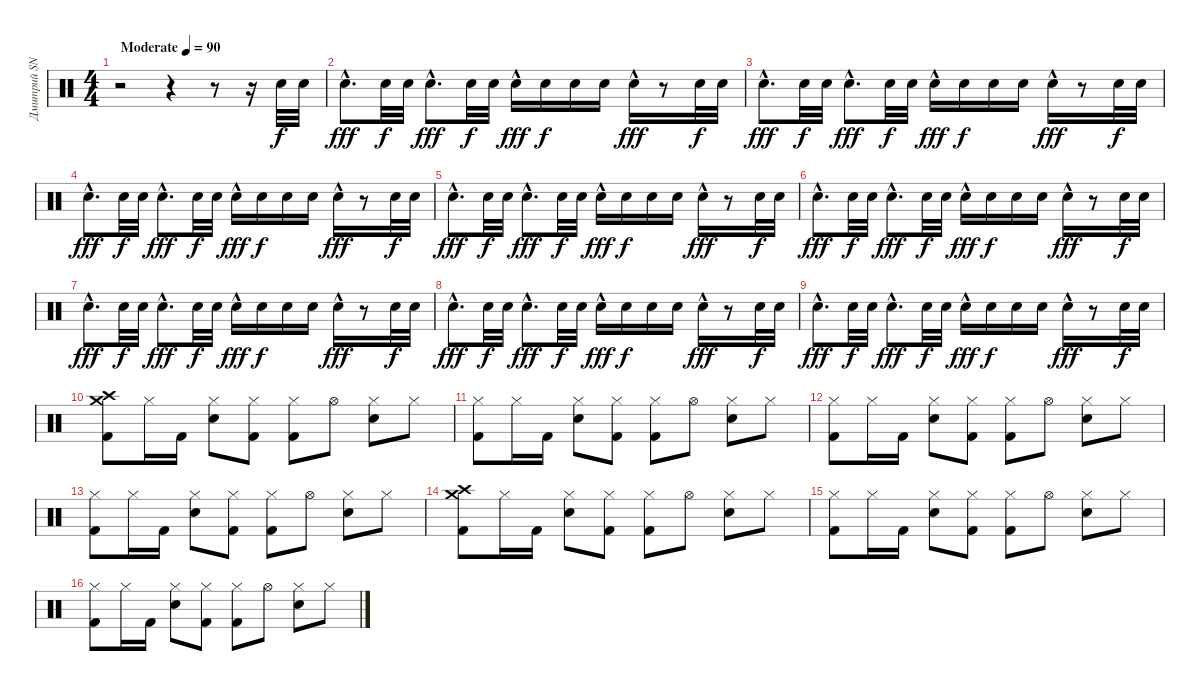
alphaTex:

\track ("Дмитрий SNAKE Хакимов" "Дмитрий SN") {instrument percussion}
\staff {score}
\articulation defaults
\ts (4 4)
\tempo (90 "Moderate")
\clef neutral
\ks c
r.2{dy f} r.4 r.8 r.16 "Snare (hit) 2".32 "Snare (hit) 2".32 |
"Snare (hit) 2"{hac}.8{d dy fff} "Snare (hit) 2".32{dy f} "Snare (hit) 2".32 "Snare (hit) 2"{hac}.8{d dy fff} "Snare (hit) 2".32{dy f} "Snare (hit) 2".32 "Snare (hit) 2"{hac}.16{dy fff} "Snare (hit) 2".16{dy f} "Snare (hit) 2".16 "Snare (hit) 2".16 "Snare (hit) 2"{hac}.16{dy fff} r.8 "Snare (hit) 2".32{dy f} "Snare (hit) 2".32 |
"Snare (hit) 2"{hac}.8{d dy fff} "Snare (hit) 2".32{dy f} "Snare (hit) 2".32 "Snare (hit) 2"{hac}.8{d dy fff} "Snare (hit) 2".32{dy f} "Snare (hit) 2".32 "Snare (hit) 2"{hac}.16{dy fff} "Snare (hit) 2".16{dy f} "Snare (hit) 2".16 "Snare (hit) 2".16 "Snare (hit) 2"{hac}.16{dy fff} r.8 "Snare (hit) 2".32{dy f} "Snare (hit) 2".32 |
"Snare (hit) 2"{hac}.8{d dy fff} "Snare (hit) 2".32{dy f} "Snare (hit) 2".32 "Snare (hit) 2"{hac}.8{d dy fff} "Snare (hit) 2".32{dy f} "Snare (hit) 2".32 "Snare (hit) 2"{hac}.16{dy fff} "Snare (hit) 2".16{dy f} "Snare (hit) 2".16 "Snare (hit) 2".16 "Snare (hit) 2"{hac}.16{dy fff} r.8 "Snare (hit) 2".32{dy f} "Snare (hit) 2".32 |
"Snare (hit) 2"{hac}.8{d dy fff} "Snare (hit) 2".32{dy f} "Snare (hit) 2".32 "Snare (hit) 2"{hac}.8{d dy fff} "Snare (hit) 2".32{dy f} "Snare (hit) 2".32 "Snare (hit) 2"{hac}.16{dy fff} "Snare (hit) 2".16{dy f} "Snare (hit) 2".16 "Snare (hit) 2".16 "Snare (hit) 2"{hac}.16{dy fff} r.8 "Snare (hit) 2".32{dy f} "Snare (hit) 2".32 |
"Snare (hit) 2"{hac}.8{d dy fff} "Snare (hit) 2".32{dy f} "Snare (hit) 2".32 "Snare (hit) 2"{hac}.8{d dy fff} "Snare (hit) 2".32{dy f} "Snare (hit) 2".32 "Snare (hit) 2"{hac}.16{dy fff} "Snare (hit) 2".16{dy f} "Snare (hit) 2".16 "Snare (hit) 2".16 "Snare (hit) 2"{hac}.16{dy fff} r.8 "Snare (hit) 2".32{dy f} "Snare (hit) 2".32 |
"Snare (hit) 2"{hac}.8{d dy fff} "Snare (hit) 2".32{dy f} "Snare (hit) 2".32 "Snare (hit) 2"{hac}.8{d dy fff} "Snare (hit) 2".32{dy f} "Snare (hit) 2".32 "Snare (hit) 2"{hac}.16{dy fff} "Snare (hit) 2".16{dy f} "Snare (hit) 2".16 "Snare (hit) 2".16 "Snare (hit) 2"{hac}.16{dy fff} r.8 "Snare (hit) 2".32{dy f} "Snare (hit) 2".32 |
"Snare (hit) 2"{hac}.8{d dy fff} "Snare (hit) 2".32{dy f} "Snare (hit) 2".32 "Snare (hit) 2"{hac}.8{d dy fff} "Snare (hit) 2".32{dy f} "Snare (hit) 2".32 "Snare (hit) 2"{hac}.16{dy fff} "Snare (hit) 2".16{dy f} "Snare (hit) 2".16 "Snare (hit) 2".16 "Snare (hit) 2"{hac}.16{dy fff} r.8 "Snare (hit) 2".32{dy f} "Snare (hit) 2".32 |
"Snare (hit) 2"{hac}.8{d dy fff} "Snare (hit) 2".32{dy f} "Snare (hit) 2".32 "Snare (hit) 2"{hac}.8{d dy fff} "Snare (hit) 2".32{dy f} "Snare (hit) 2".32 "Snare (hit) 2"{hac}.16{dy fff} "Snare (hit) 2".16{dy f} "Snare (hit) 2".16 "Snare (hit) 2".16 "Snare (hit) 2"{hac}.16{dy fff} r.8 "Snare (hit) 2".32{dy f} "Snare (hit) 2".32 |
("Crash high (hit)" "Crash medium (hit)" "Kick (hit) 2").8 "Hi-Hat (closed)".16 "Kick (hit) 2".16 ("Hi-Hat (closed)" "Snare (hit) 2").8 ("Hi-Hat (closed)" "Kick (hit) 2").8 ("Hi-Hat (closed)" "Kick (hit) 2").8 "Hi-Hat (open)".8 ("Hi-Hat (closed)" "Snare (hit) 2").8 "Hi-Hat (closed)".8 |
("Hi-Hat (closed)" "Kick (hit) 2").8 "Hi-Hat (closed)".16 "Kick (hit) 2".16 ("Hi-Hat (closed)" "Snare (hit) 2").8 ("Hi-Hat (closed)" "Kick (hit) 2").8 ("Hi-Hat (closed)" "Kick (hit) 2").8 "Hi-Hat (open)".8 ("Hi-Hat (closed)" "Snare (hit) 2").8 "Hi-Hat (closed)".8 |
("Hi-Hat (closed)" "Kick (hit) 2").8 "Hi-Hat (closed)".16 "Kick (hit) 2".16 ("Hi-Hat (closed)" "Snare (hit) 2").8 ("Hi-Hat (closed)" "Kick (hit) 2").8 ("Hi-Hat (closed)" "Kick (hit) 2").8 "Hi-Hat (open)".8 ("Hi-Hat (closed)" "Snare (hit) 2").8 "Hi-Hat (closed)".8 |
("Hi-Hat (closed)" "Kick (hit) 2").8 "Hi-Hat (closed)".16 "Kick (hit) 2".16 ("Hi-Hat (closed)" "Snare (hit) 2").8 ("Hi-Hat (closed)" "Kick (hit) 2").8 ("Hi-Hat (closed)" "Kick (hit) 2").8 "Hi-Hat (open)".8 ("Hi-Hat (closed)" "Snare (hit) 2").8 "Hi-Hat (closed)".8 |
("Crash high (hit)" "Crash medium (hit)" "Kick (hit) 2").8 "Hi-Hat (closed)".16 "Kick (hit) 2".16 ("Hi-Hat (closed)" "Snare (hit) 2").8 ("Hi-Hat (closed)" "Kick (hit) 2").8 ("Hi-Hat (closed)" "Kick (hit) 2").8 "Hi-Hat (open)".8 ("Hi-Hat (closed)" "Snare (hit) 2").8 "Hi-Hat (closed)".8 |
("Hi-Hat (closed)" "Kick (hit) 2").8 "Hi-Hat (closed)".16 "Kick (hit) 2".16 ("Hi-Hat (closed)" "Snare (hit) 2").8 ("Hi-Hat (closed)" "Kick (hit) 2").8 ("Hi-Hat (closed)" "Kick (hit) 2").8 "Hi-Hat (open)".8 ("Hi-Hat (closed)" "Snare (hit) 2").8 "Hi-Hat (closed)".8 |
("Hi-Hat (closed)" "Kick (hit) 2").8 "Hi-Hat (closed)".16 "Kick (hit) 2".16 ("Hi-Hat (closed)" "Snare (hit) 2").8 ("Hi-Hat (closed)" "Kick (hit) 2").8 ("Hi-Hat (closed)" "Kick (hit) 2").8 "Hi-Hat (open)".8 ("Hi-Hat (closed)" "Snare (hit) 2").8 "Hi-Hat (closed)".8
